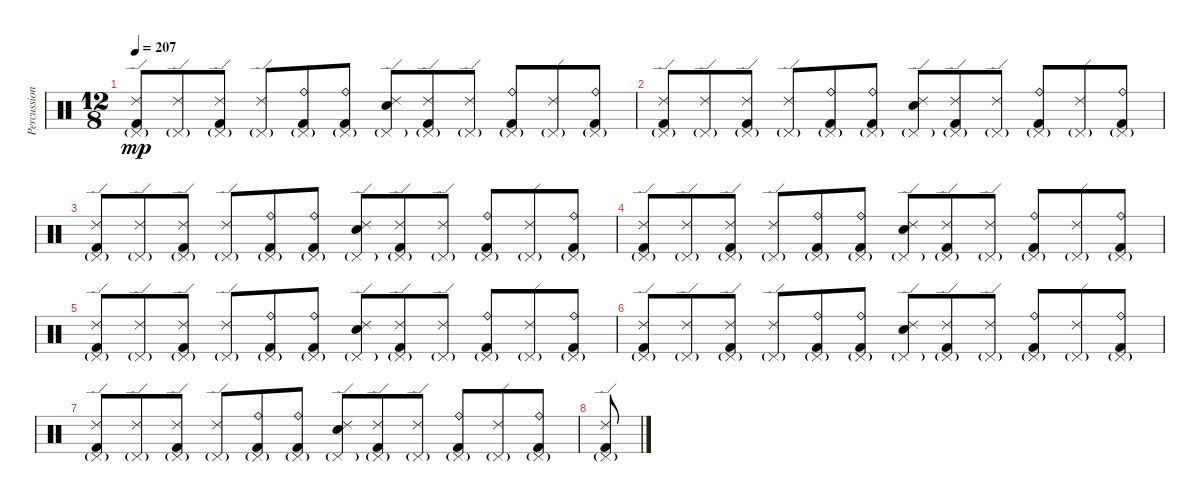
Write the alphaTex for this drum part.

\track ("Percussion" "Percussion") {instrument percussion}
\staff {score}
\articulation defaults
\ts (12 8)
\tempo 207
\clef neutral
\ks c
("Ride (edge) 2" "Pedal Hi-Hat (hit)"{g} "Kick (hit) 2").8{dy mp} ("Ride (edge) 2" "Pedal Hi-Hat (hit)"{g}).8 ("Ride (edge) 2" "Pedal Hi-Hat (hit)"{g} "Kick (hit) 2").8 ("Ride (edge) 2" "Pedal Hi-Hat (hit)"{g}).8 ("Ride (bell)" "Pedal Hi-Hat (hit)"{g} "Kick (hit) 2").8 ("Ride (bell)" "Pedal Hi-Hat (hit)"{g} "Kick (hit) 2").8 ("Ride (edge) 2" "Pedal Hi-Hat (hit)"{g} "Electric Snare (hit)").8 ("Ride (edge) 2" "Pedal Hi-Hat (hit)"{g} "Kick (hit) 2").8 ("Ride (edge) 2" "Pedal Hi-Hat (hit)"{g}).8 ("Ride (bell)" "Pedal Hi-Hat (hit)"{g} "Kick (hit) 2").8 ("Ride (edge) 2" "Pedal Hi-Hat (hit)"{g}).8 ("Ride (bell)" "Pedal Hi-Hat (hit)"{g} "Kick (hit) 2").8 |
("Ride (edge) 2" "Pedal Hi-Hat (hit)"{g} "Kick (hit) 2").8 ("Ride (edge) 2" "Pedal Hi-Hat (hit)"{g}).8 ("Ride (edge) 2" "Pedal Hi-Hat (hit)"{g} "Kick (hit) 2").8 ("Ride (edge) 2" "Pedal Hi-Hat (hit)"{g}).8 ("Ride (bell)" "Pedal Hi-Hat (hit)"{g} "Kick (hit) 2").8 ("Ride (bell)" "Pedal Hi-Hat (hit)"{g} "Kick (hit) 2").8 ("Ride (edge) 2" "Pedal Hi-Hat (hit)"{g} "Electric Snare (hit)").8 ("Ride (edge) 2" "Pedal Hi-Hat (hit)"{g} "Kick (hit) 2").8 ("Ride (edge) 2" "Pedal Hi-Hat (hit)"{g}).8 ("Ride (bell)" "Pedal Hi-Hat (hit)"{g} "Kick (hit) 2").8 ("Ride (edge) 2" "Pedal Hi-Hat (hit)"{g}).8 ("Ride (bell)" "Pedal Hi-Hat (hit)"{g} "Kick (hit) 2").8 |
("Ride (edge) 2" "Pedal Hi-Hat (hit)"{g} "Kick (hit) 2").8 ("Ride (edge) 2" "Pedal Hi-Hat (hit)"{g}).8 ("Ride (edge) 2" "Pedal Hi-Hat (hit)"{g} "Kick (hit) 2").8 ("Ride (edge) 2" "Pedal Hi-Hat (hit)"{g}).8 ("Ride (bell)" "Pedal Hi-Hat (hit)"{g} "Kick (hit) 2").8 ("Ride (bell)" "Pedal Hi-Hat (hit)"{g} "Kick (hit) 2").8 ("Ride (edge) 2" "Pedal Hi-Hat (hit)"{g} "Electric Snare (hit)").8 ("Ride (edge) 2" "Pedal Hi-Hat (hit)"{g} "Kick (hit) 2").8 ("Ride (edge) 2" "Pedal Hi-Hat (hit)"{g}).8 ("Ride (bell)" "Pedal Hi-Hat (hit)"{g} "Kick (hit) 2").8 ("Ride (edge) 2" "Pedal Hi-Hat (hit)"{g}).8 ("Ride (bell)" "Pedal Hi-Hat (hit)"{g} "Kick (hit) 2").8 |
("Ride (edge) 2" "Pedal Hi-Hat (hit)"{g} "Kick (hit) 2").8 ("Ride (edge) 2" "Pedal Hi-Hat (hit)"{g}).8 ("Ride (edge) 2" "Pedal Hi-Hat (hit)"{g} "Kick (hit) 2").8 ("Ride (edge) 2" "Pedal Hi-Hat (hit)"{g}).8 ("Ride (bell)" "Pedal Hi-Hat (hit)"{g} "Kick (hit) 2").8 ("Ride (bell)" "Pedal Hi-Hat (hit)"{g} "Kick (hit) 2").8 ("Ride (edge) 2" "Pedal Hi-Hat (hit)"{g} "Electric Snare (hit)").8 ("Ride (edge) 2" "Pedal Hi-Hat (hit)"{g} "Kick (hit) 2").8 ("Ride (edge) 2" "Pedal Hi-Hat (hit)"{g}).8 ("Ride (bell)" "Pedal Hi-Hat (hit)"{g} "Kick (hit) 2").8 ("Ride (edge) 2" "Pedal Hi-Hat (hit)"{g}).8 ("Ride (bell)" "Pedal Hi-Hat (hit)"{g} "Kick (hit) 2").8 |
("Ride (edge) 2" "Pedal Hi-Hat (hit)"{g} "Kick (hit) 2").8 ("Ride (edge) 2" "Pedal Hi-Hat (hit)"{g}).8 ("Ride (edge) 2" "Pedal Hi-Hat (hit)"{g} "Kick (hit) 2").8 ("Ride (edge) 2" "Pedal Hi-Hat (hit)"{g}).8 ("Ride (bell)" "Pedal Hi-Hat (hit)"{g} "Kick (hit) 2").8 ("Ride (bell)" "Pedal Hi-Hat (hit)"{g} "Kick (hit) 2").8 ("Ride (edge) 2" "Pedal Hi-Hat (hit)"{g} "Electric Snare (hit)").8 ("Ride (edge) 2" "Pedal Hi-Hat (hit)"{g} "Kick (hit) 2").8 ("Ride (edge) 2" "Pedal Hi-Hat (hit)"{g}).8 ("Ride (bell)" "Pedal Hi-Hat (hit)"{g} "Kick (hit) 2").8 ("Ride (edge) 2" "Pedal Hi-Hat (hit)"{g}).8 ("Ride (bell)" "Pedal Hi-Hat (hit)"{g} "Kick (hit) 2").8 |
("Ride (edge) 2" "Pedal Hi-Hat (hit)"{g} "Kick (hit) 2").8 ("Ride (edge) 2" "Pedal Hi-Hat (hit)"{g}).8 ("Ride (edge) 2" "Pedal Hi-Hat (hit)"{g} "Kick (hit) 2").8 ("Ride (edge) 2" "Pedal Hi-Hat (hit)"{g}).8 ("Ride (bell)" "Pedal Hi-Hat (hit)"{g} "Kick (hit) 2").8 ("Ride (bell)" "Pedal Hi-Hat (hit)"{g} "Kick (hit) 2").8 ("Ride (edge) 2" "Pedal Hi-Hat (hit)"{g} "Electric Snare (hit)").8 ("Ride (edge) 2" "Pedal Hi-Hat (hit)"{g} "Kick (hit) 2").8 ("Ride (edge) 2" "Pedal Hi-Hat (hit)"{g}).8 ("Ride (bell)" "Pedal Hi-Hat (hit)"{g} "Kick (hit) 2").8 ("Ride (edge) 2" "Pedal Hi-Hat (hit)"{g}).8 ("Ride (bell)" "Pedal Hi-Hat (hit)"{g} "Kick (hit) 2").8 |
("Ride (edge) 2" "Pedal Hi-Hat (hit)"{g} "Kick (hit) 2").8 ("Ride (edge) 2" "Pedal Hi-Hat (hit)"{g}).8 ("Ride (edge) 2" "Pedal Hi-Hat (hit)"{g} "Kick (hit) 2").8 ("Ride (edge) 2" "Pedal Hi-Hat (hit)"{g}).8 ("Ride (bell)" "Pedal Hi-Hat (hit)"{g} "Kick (hit) 2").8 ("Ride (bell)" "Pedal Hi-Hat (hit)"{g} "Kick (hit) 2").8 ("Ride (edge) 2" "Pedal Hi-Hat (hit)"{g} "Electric Snare (hit)").8 ("Ride (edge) 2" "Pedal Hi-Hat (hit)"{g} "Kick (hit) 2").8 ("Ride (edge) 2" "Pedal Hi-Hat (hit)"{g}).8 ("Ride (bell)" "Pedal Hi-Hat (hit)"{g} "Kick (hit) 2").8 ("Ride (edge) 2" "Pedal Hi-Hat (hit)"{g}).8 ("Ride (bell)" "Pedal Hi-Hat (hit)"{g} "Kick (hit) 2").8 |
("Ride (edge) 2" "Pedal Hi-Hat (hit)"{g} "Kick (hit) 2").8
